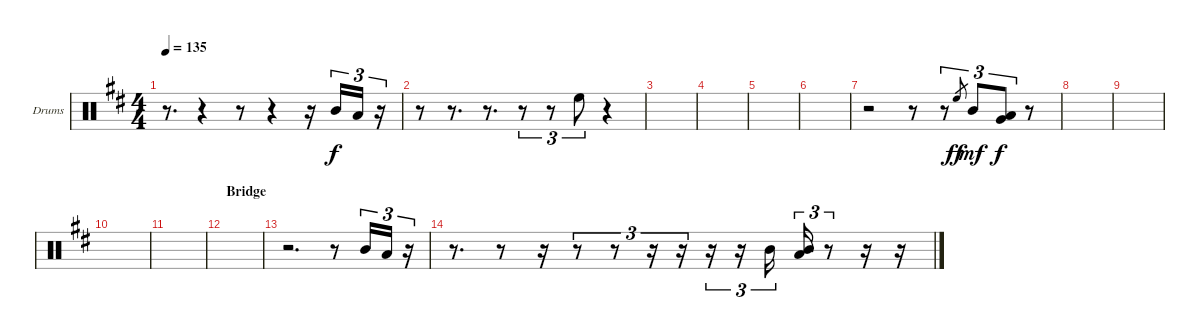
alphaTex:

\bracketExtendMode groupsimilarinstruments
\firstSystemTrackNameOrientation horizontal
\otherSystemsTrackNameOrientation horizontal
\track ("Tom" "Drums") {instrument percussion}
\staff {score}
\articulation defaults
\ts (4 4)
\tempo 135
\clef neutral
\ks d
r.8{d dy mf} r.4 r.8 r.4 r.16 "Mid Tom (hit)".16{tu (3 2) dy f} "Low Tom (hit)".16{tu (3 2)} r.16{tu (3 2)} |
r.8 r.8{d} r.8{d} r.8{tu (3 2)} r.8{tu (3 2)} "High Floor Tom (hit)".8{tu (3 2)} r.4 |
|
|
|
|
r.2 r.8 r.8{tu (3 2)} "High Floor Tom (hit)".8{tu (3 2) gr dy ff} "Mid Tom (hit)".8{tu (3 2) dy mf} ("Very Low Tom (hit)" "Low Tom (hit)").8{tu (3 2) dy f} r.8 |
|
|
|
|
\section ("" "Bridge")
|
r.2{d} r.8 "Mid Tom (hit)".16{tu (3 2)} "Low Tom (hit)".16{tu (3 2)} r.16{tu (3 2)} |
r.8{d} r.8 r.16 r.8{tu (3 2)} r.8{tu (3 2)} r.16{tu (3 2)} r.16{tu (3 2)} r.16{tu (3 2)} r.16{tu (3 2)} "Mid Tom (hit)".16{tu (3 2)} ("Mid Tom (hit)" "Low Tom (hit)").16{tu (3 2)} r.8{tu (3 2)} r.16 r.16
